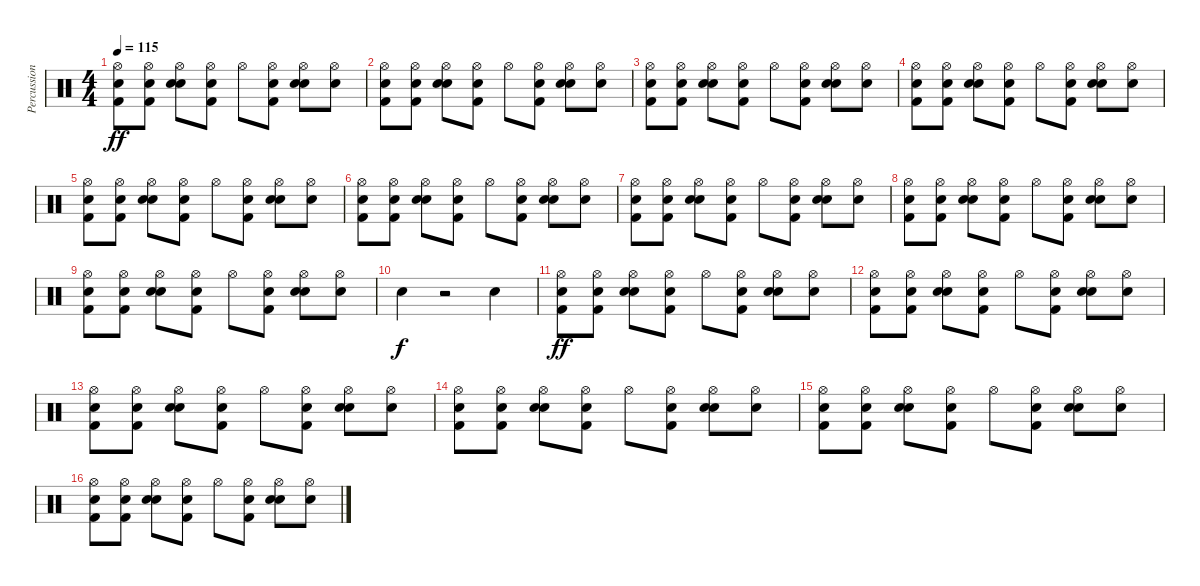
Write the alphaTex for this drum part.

\track ("Percussions / hands" "Percussion") {instrument percussion}
\staff {score}
\articulation defaults
\ts (4 4)
\tempo 115
\clef neutral
\ks c
("Hi-Hat (open)" "Kick (hit) 2" "Hand Clap (hit)").8{dy ff} ("Hi-Hat (open)" "Kick (hit) 2" "Hand Clap (hit)").8 ("Hi-Hat (open)" "Electric Snare (hit)" "Hand Clap (hit)").8 ("Hi-Hat (open)" "Kick (hit) 2" "Hand Clap (hit)").8 "Hi-Hat (open)".8 ("Hi-Hat (open)" "Kick (hit) 2" "Hand Clap (hit)").8 ("Hi-Hat (open)" "Electric Snare (hit)" "Hand Clap (hit)").8 ("Hi-Hat (open)" "Hand Clap (hit)").8 |
("Hi-Hat (open)" "Kick (hit) 2" "Hand Clap (hit)").8 ("Hi-Hat (open)" "Kick (hit) 2" "Hand Clap (hit)").8 ("Hi-Hat (open)" "Electric Snare (hit)" "Hand Clap (hit)").8 ("Hi-Hat (open)" "Kick (hit) 2" "Hand Clap (hit)").8 "Hi-Hat (open)".8 ("Hi-Hat (open)" "Kick (hit) 2" "Hand Clap (hit)").8 ("Hi-Hat (open)" "Electric Snare (hit)" "Hand Clap (hit)").8 ("Hi-Hat (open)" "Hand Clap (hit)").8 |
("Hi-Hat (open)" "Kick (hit) 2" "Hand Clap (hit)").8 ("Hi-Hat (open)" "Kick (hit) 2" "Hand Clap (hit)").8 ("Hi-Hat (open)" "Electric Snare (hit)" "Hand Clap (hit)").8 ("Hi-Hat (open)" "Kick (hit) 2" "Hand Clap (hit)").8 "Hi-Hat (open)".8 ("Hi-Hat (open)" "Kick (hit) 2" "Hand Clap (hit)").8 ("Hi-Hat (open)" "Electric Snare (hit)" "Hand Clap (hit)").8 ("Hi-Hat (open)" "Hand Clap (hit)").8 |
("Hi-Hat (open)" "Kick (hit) 2" "Hand Clap (hit)").8 ("Hi-Hat (open)" "Kick (hit) 2" "Hand Clap (hit)").8 ("Hi-Hat (open)" "Electric Snare (hit)" "Hand Clap (hit)").8 ("Hi-Hat (open)" "Kick (hit) 2" "Hand Clap (hit)").8 "Hi-Hat (open)".8 ("Hi-Hat (open)" "Kick (hit) 2" "Hand Clap (hit)").8 ("Hi-Hat (open)" "Electric Snare (hit)" "Hand Clap (hit)").8 ("Hi-Hat (open)" "Hand Clap (hit)").8 |
("Hi-Hat (open)" "Kick (hit) 2" "Hand Clap (hit)").8 ("Hi-Hat (open)" "Kick (hit) 2" "Hand Clap (hit)").8 ("Hi-Hat (open)" "Electric Snare (hit)" "Hand Clap (hit)").8 ("Hi-Hat (open)" "Kick (hit) 2" "Hand Clap (hit)").8 "Hi-Hat (open)".8 ("Hi-Hat (open)" "Kick (hit) 2" "Hand Clap (hit)").8 ("Hi-Hat (open)" "Electric Snare (hit)" "Hand Clap (hit)").8 ("Hi-Hat (open)" "Hand Clap (hit)").8 |
("Hi-Hat (open)" "Kick (hit) 2" "Hand Clap (hit)").8 ("Hi-Hat (open)" "Kick (hit) 2" "Hand Clap (hit)").8 ("Hi-Hat (open)" "Electric Snare (hit)" "Hand Clap (hit)").8 ("Hi-Hat (open)" "Kick (hit) 2" "Hand Clap (hit)").8 "Hi-Hat (open)".8 ("Hi-Hat (open)" "Kick (hit) 2" "Hand Clap (hit)").8 ("Hi-Hat (open)" "Electric Snare (hit)" "Hand Clap (hit)").8 ("Hi-Hat (open)" "Hand Clap (hit)").8 |
("Hi-Hat (open)" "Kick (hit) 2" "Hand Clap (hit)").8 ("Hi-Hat (open)" "Kick (hit) 2" "Hand Clap (hit)").8 ("Hi-Hat (open)" "Electric Snare (hit)" "Hand Clap (hit)").8 ("Hi-Hat (open)" "Kick (hit) 2" "Hand Clap (hit)").8 "Hi-Hat (open)".8 ("Hi-Hat (open)" "Kick (hit) 2" "Hand Clap (hit)").8 ("Hi-Hat (open)" "Electric Snare (hit)" "Hand Clap (hit)").8 ("Hi-Hat (open)" "Hand Clap (hit)").8 |
("Hi-Hat (open)" "Kick (hit) 2" "Hand Clap (hit)").8 ("Hi-Hat (open)" "Kick (hit) 2" "Hand Clap (hit)").8 ("Hi-Hat (open)" "Electric Snare (hit)" "Hand Clap (hit)").8 ("Hi-Hat (open)" "Kick (hit) 2" "Hand Clap (hit)").8 "Hi-Hat (open)".8 ("Hi-Hat (open)" "Kick (hit) 2" "Hand Clap (hit)").8 ("Hi-Hat (open)" "Electric Snare (hit)" "Hand Clap (hit)").8 ("Hi-Hat (open)" "Hand Clap (hit)").8 |
("Hi-Hat (open)" "Kick (hit) 2" "Hand Clap (hit)").8 ("Hi-Hat (open)" "Kick (hit) 2" "Hand Clap (hit)").8 ("Hi-Hat (open)" "Electric Snare (hit)" "Hand Clap (hit)").8 ("Hi-Hat (open)" "Kick (hit) 2" "Hand Clap (hit)").8 "Hi-Hat (open)".8 ("Hi-Hat (open)" "Kick (hit) 2" "Hand Clap (hit)").8 ("Hi-Hat (open)" "Electric Snare (hit)" "Hand Clap (hit)").8 ("Hi-Hat (open)" "Hand Clap (hit)").8 |
"Electric Snare (hit)".4{dy f} r.2 "Electric Snare (hit)".4 |
("Hi-Hat (open)" "Kick (hit) 2" "Hand Clap (hit)").8{dy ff} ("Hi-Hat (open)" "Kick (hit) 2" "Hand Clap (hit)").8 ("Hi-Hat (open)" "Electric Snare (hit)" "Hand Clap (hit)").8 ("Hi-Hat (open)" "Kick (hit) 2" "Hand Clap (hit)").8 "Hi-Hat (open)".8 ("Hi-Hat (open)" "Kick (hit) 2" "Hand Clap (hit)").8 ("Hi-Hat (open)" "Electric Snare (hit)" "Hand Clap (hit)").8 ("Hi-Hat (open)" "Hand Clap (hit)").8 |
("Hi-Hat (open)" "Kick (hit) 2" "Hand Clap (hit)").8 ("Hi-Hat (open)" "Kick (hit) 2" "Hand Clap (hit)").8 ("Hi-Hat (open)" "Electric Snare (hit)" "Hand Clap (hit)").8 ("Hi-Hat (open)" "Kick (hit) 2" "Hand Clap (hit)").8 "Hi-Hat (open)".8 ("Hi-Hat (open)" "Kick (hit) 2" "Hand Clap (hit)").8 ("Hi-Hat (open)" "Electric Snare (hit)" "Hand Clap (hit)").8 ("Hi-Hat (open)" "Hand Clap (hit)").8 |
("Hi-Hat (open)" "Kick (hit) 2" "Hand Clap (hit)").8 ("Hi-Hat (open)" "Kick (hit) 2" "Hand Clap (hit)").8 ("Hi-Hat (open)" "Electric Snare (hit)" "Hand Clap (hit)").8 ("Hi-Hat (open)" "Kick (hit) 2" "Hand Clap (hit)").8 "Hi-Hat (open)".8 ("Hi-Hat (open)" "Kick (hit) 2" "Hand Clap (hit)").8 ("Hi-Hat (open)" "Electric Snare (hit)" "Hand Clap (hit)").8 ("Hi-Hat (open)" "Hand Clap (hit)").8 |
("Hi-Hat (open)" "Kick (hit) 2" "Hand Clap (hit)").8 ("Hi-Hat (open)" "Kick (hit) 2" "Hand Clap (hit)").8 ("Hi-Hat (open)" "Electric Snare (hit)" "Hand Clap (hit)").8 ("Hi-Hat (open)" "Kick (hit) 2" "Hand Clap (hit)").8 "Hi-Hat (open)".8 ("Hi-Hat (open)" "Kick (hit) 2" "Hand Clap (hit)").8 ("Hi-Hat (open)" "Electric Snare (hit)" "Hand Clap (hit)").8 ("Hi-Hat (open)" "Hand Clap (hit)").8 |
("Hi-Hat (open)" "Kick (hit) 2" "Hand Clap (hit)").8 ("Hi-Hat (open)" "Kick (hit) 2" "Hand Clap (hit)").8 ("Hi-Hat (open)" "Electric Snare (hit)" "Hand Clap (hit)").8 ("Hi-Hat (open)" "Kick (hit) 2" "Hand Clap (hit)").8 "Hi-Hat (open)".8 ("Hi-Hat (open)" "Kick (hit) 2" "Hand Clap (hit)").8 ("Hi-Hat (open)" "Electric Snare (hit)" "Hand Clap (hit)").8 ("Hi-Hat (open)" "Hand Clap (hit)").8 |
("Hi-Hat (open)" "Kick (hit) 2" "Hand Clap (hit)").8 ("Hi-Hat (open)" "Kick (hit) 2" "Hand Clap (hit)").8 ("Hi-Hat (open)" "Electric Snare (hit)" "Hand Clap (hit)").8 ("Hi-Hat (open)" "Kick (hit) 2" "Hand Clap (hit)").8 "Hi-Hat (open)".8 ("Hi-Hat (open)" "Kick (hit) 2" "Hand Clap (hit)").8 ("Hi-Hat (open)" "Electric Snare (hit)" "Hand Clap (hit)").8 ("Hi-Hat (open)" "Hand Clap (hit)").8
